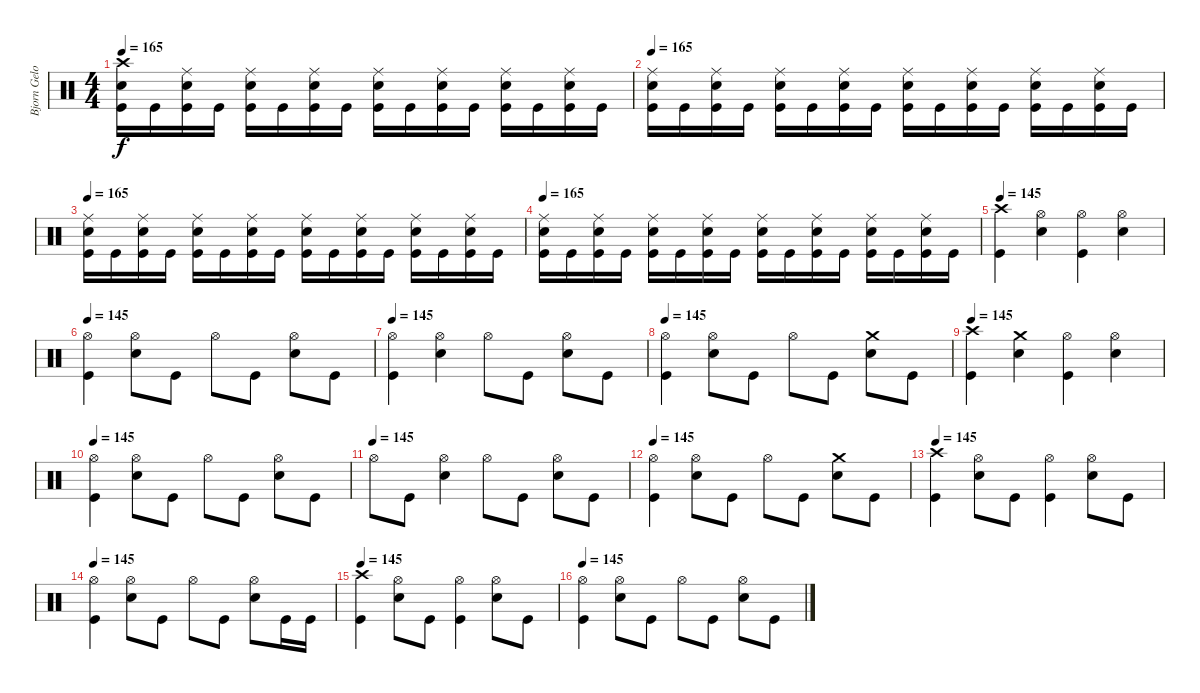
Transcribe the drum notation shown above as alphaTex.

\track ("Bjorn Gelotte-Drum" "Bjorn Gelo") {instrument percussion}
\staff {score}
\articulation defaults
\ts (4 4)
\tempo 165
\clef neutral
\ks c
("Crash high (hit)" "Electric Snare (hit)" "Kick (hit)").16{dy f} "Kick (hit)".16 ("Ride (middle)" "Electric Snare (hit)" "Kick (hit)").16 "Kick (hit)".16 ("Ride (middle)" "Electric Snare (hit)" "Kick (hit)").16 "Kick (hit)".16 ("Ride (middle)" "Electric Snare (hit)" "Kick (hit)").16 "Kick (hit)".16 ("Ride (middle)" "Electric Snare (hit)" "Kick (hit)").16 "Kick (hit)".16 ("Ride (middle)" "Electric Snare (hit)" "Kick (hit)").16 "Kick (hit)".16 ("Ride (middle)" "Electric Snare (hit)" "Kick (hit)").16 "Kick (hit)".16 ("Ride (middle)" "Electric Snare (hit)" "Kick (hit)").16 "Kick (hit)".16 |
\tempo 165
("Ride (middle)" "Electric Snare (hit)" "Kick (hit)").16 "Kick (hit)".16 ("Ride (middle)" "Electric Snare (hit)" "Kick (hit)").16 "Kick (hit)".16 ("Ride (middle)" "Electric Snare (hit)" "Kick (hit)").16 "Kick (hit)".16 ("Ride (middle)" "Electric Snare (hit)" "Kick (hit)").16 "Kick (hit)".16 ("Ride (middle)" "Electric Snare (hit)" "Kick (hit)").16 "Kick (hit)".16 ("Ride (middle)" "Electric Snare (hit)" "Kick (hit)").16 "Kick (hit)".16 ("Ride (middle)" "Electric Snare (hit)" "Kick (hit)").16 "Kick (hit)".16 ("Ride (middle)" "Electric Snare (hit)" "Kick (hit)").16 "Kick (hit)".16 |
\tempo 165
("Ride (middle)" "Electric Snare (hit)" "Kick (hit)").16 "Kick (hit)".16 ("Ride (middle)" "Electric Snare (hit)" "Kick (hit)").16 "Kick (hit)".16 ("Ride (middle)" "Electric Snare (hit)" "Kick (hit)").16 "Kick (hit)".16 ("Ride (middle)" "Electric Snare (hit)" "Kick (hit)").16 "Kick (hit)".16 ("Ride (middle)" "Electric Snare (hit)" "Kick (hit)").16 "Kick (hit)".16 ("Ride (middle)" "Electric Snare (hit)" "Kick (hit)").16 "Kick (hit)".16 ("Ride (middle)" "Electric Snare (hit)" "Kick (hit)").16 "Kick (hit)".16 ("Ride (middle)" "Electric Snare (hit)" "Kick (hit)").16 "Kick (hit)".16 |
\tempo 165
("Ride (middle)" "Electric Snare (hit)" "Kick (hit)").16 "Kick (hit)".16 ("Ride (middle)" "Electric Snare (hit)" "Kick (hit)").16 "Kick (hit)".16 ("Ride (middle)" "Electric Snare (hit)" "Kick (hit)").16 "Kick (hit)".16 ("Ride (middle)" "Electric Snare (hit)" "Kick (hit)").16 "Kick (hit)".16 ("Ride (middle)" "Electric Snare (hit)" "Kick (hit)").16 "Kick (hit)".16 ("Ride (middle)" "Electric Snare (hit)" "Kick (hit)").16 "Kick (hit)".16 ("Ride (middle)" "Electric Snare (hit)" "Kick (hit)").16 "Kick (hit)".16 ("Ride (middle)" "Electric Snare (hit)" "Kick (hit)").16 "Kick (hit)".16 |
\tempo 145
("Crash high (hit)" "Kick (hit)").4 ("Hi-Hat (open)" "Electric Snare (hit)").4 ("Hi-Hat (open)" "Kick (hit)").4 ("Hi-Hat (open)" "Electric Snare (hit)").4 |
\tempo 145
("Hi-Hat (open)" "Kick (hit)").4 ("Hi-Hat (open)" "Electric Snare (hit)").8 "Kick (hit)".8 "Hi-Hat (open)".8 "Kick (hit)".8 ("Hi-Hat (open)" "Electric Snare (hit)").8 "Kick (hit)".8 |
\tempo 145
("Hi-Hat (open)" "Kick (hit)").4 ("Hi-Hat (open)" "Electric Snare (hit)").4 "Hi-Hat (open)".8 "Kick (hit)".8 ("Hi-Hat (open)" "Electric Snare (hit)").8 "Kick (hit)".8 |
\tempo 145
("Hi-Hat (open)" "Kick (hit)").4 ("Hi-Hat (open)" "Electric Snare (hit)").8 "Kick (hit)".8 "Hi-Hat (open)".8 "Kick (hit)".8 ("Crash medium (hit)" "Electric Snare (hit)").8 "Kick (hit)".8 |
\tempo 145
("Crash high (hit)" "Kick (hit)").4 ("Crash medium (hit)" "Electric Snare (hit)").4 ("Hi-Hat (open)" "Kick (hit)").4 ("Hi-Hat (open)" "Electric Snare (hit)").4 |
\tempo 145
("Hi-Hat (open)" "Kick (hit)").4 ("Hi-Hat (open)" "Electric Snare (hit)").8 "Kick (hit)".8 "Hi-Hat (open)".8 "Kick (hit)".8 ("Hi-Hat (open)" "Electric Snare (hit)").8 "Kick (hit)".8 |
\tempo (145)
"Hi-Hat (open)".8 "Kick (hit)".8 ("Hi-Hat (open)" "Electric Snare (hit)").4 "Hi-Hat (open)".8 "Kick (hit)".8 ("Hi-Hat (open)" "Electric Snare (hit)").8 "Kick (hit)".8 |
\tempo 145
("Hi-Hat (open)" "Kick (hit)").4 ("Hi-Hat (open)" "Electric Snare (hit)").8 "Kick (hit)".8 "Hi-Hat (open)".8 "Kick (hit)".8 ("Crash medium (hit)" "Electric Snare (hit)").8 "Kick (hit)".8 |
\tempo 145
("Crash high (hit)" "Kick (hit)").4 ("Hi-Hat (open)" "Electric Snare (hit)").8 "Kick (hit)".8 ("Hi-Hat (open)" "Kick (hit)").4 ("Hi-Hat (open)" "Electric Snare (hit)").8 "Kick (hit)".8 |
\tempo 145
("Hi-Hat (open)" "Kick (hit)").4 ("Hi-Hat (open)" "Electric Snare (hit)").8 "Kick (hit)".8 "Hi-Hat (open)".8 "Kick (hit)".8 ("Hi-Hat (open)" "Electric Snare (hit)").8 "Kick (hit)".16 "Kick (hit)".16 |
\tempo 145
("Crash high (hit)" "Kick (hit)").4 ("Hi-Hat (open)" "Electric Snare (hit)").8 "Kick (hit)".8 ("Hi-Hat (open)" "Kick (hit)").4 ("Hi-Hat (open)" "Electric Snare (hit)").8 "Kick (hit)".8 |
\tempo 145
("Hi-Hat (open)" "Kick (hit)").4 ("Hi-Hat (open)" "Electric Snare (hit)").8 "Kick (hit)".8 "Hi-Hat (open)".8 "Kick (hit)".8 ("Hi-Hat (open)" "Electric Snare (hit)").8 "Kick (hit)".8
